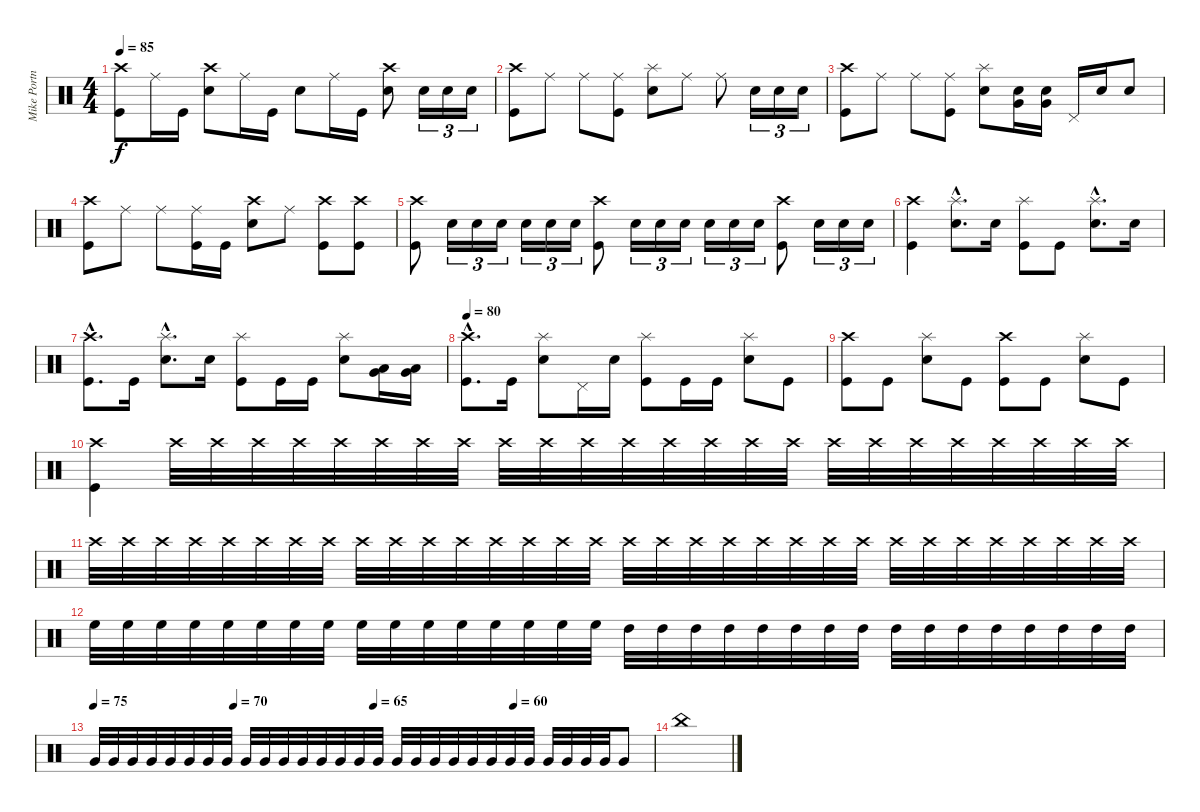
\track ("Mike Portnoy" "Mike Portn") {instrument percussion}
\staff {score}
\articulation defaults
\ts (4 4)
\tempo 85
\clef neutral
\ks c
("Crash high (hit)" "Kick (hit)").8{dy f} "Ride (middle)".16 "Kick (hit)".16 ("Crash high (hit)" "Electric Snare (hit)").8 "Ride (middle)".16 "Kick (hit)".16 "Electric Snare (hit)".8 "Ride (middle)".16 "Kick (hit)".16 ("Crash high (hit)" "Electric Snare (hit)").8 "Electric Snare (hit)".16{tu (3 2)} "Electric Snare (hit)".16{tu (3 2)} "Electric Snare (hit)".16{tu (3 2)} |
("Crash high (hit)" "Kick (hit)").8 "Ride (middle)".8 "Ride (middle)".8 ("Ride (middle)" "Kick (hit)").8 ("Splash (hit)" "Electric Snare (hit)").8 "Ride (middle)".8 "Ride (middle)".8 "Electric Snare (hit)".16{tu (3 2)} "Electric Snare (hit)".16{tu (3 2)} "Electric Snare (hit)".16{tu (3 2)} |
("Crash high (hit)" "Kick (hit)").8 "Ride (middle)".8 "Ride (middle)".8 ("Ride (middle)" "Kick (hit)").8 ("Splash (hit)" "Electric Snare (hit)").8 ("Electric Snare (hit)" "Very Low Tom (hit)").16 ("Electric Snare (hit)" "Very Low Tom (hit)").16 "Pedal Hi-Hat (hit)".16 "Electric Snare (hit)".16 "Electric Snare (hit)".8 |
("Crash high (hit)" "Kick (hit)").8 "Ride (middle)".8 "Ride (middle)".8 ("Ride (middle)" "Kick (hit)").16 "Kick (hit)".16 ("Crash high (hit)" "Electric Snare (hit)").8 "Ride (middle)".8 ("Crash high (hit)" "Kick (hit)").8 ("Crash high (hit)" "Kick (hit)").8 |
("Crash high (hit)" "Kick (hit)").8 "Electric Snare (hit)".16{tu (3 2)} "Electric Snare (hit)".16{tu (3 2)} "Electric Snare (hit)".16{tu (3 2)} "Electric Snare (hit)".16{tu (3 2)} "Electric Snare (hit)".16{tu (3 2)} "Electric Snare (hit)".16{tu (3 2)} ("Crash high (hit)" "Kick (hit)").8 "Electric Snare (hit)".16{tu (3 2)} "Electric Snare (hit)".16{tu (3 2)} "Electric Snare (hit)".16{tu (3 2)} "Electric Snare (hit)".16{tu (3 2)} "Electric Snare (hit)".16{tu (3 2)} "Electric Snare (hit)".16{tu (3 2)} ("Crash high (hit)" "Kick (hit)").8 "Electric Snare (hit)".16{tu (3 2)} "Electric Snare (hit)".16{tu (3 2)} "Electric Snare (hit)".16{tu (3 2)} |
("Crash high (hit)" "Kick (hit)").4 ("Splash (hit)"{hac} "Electric Snare (hit)"{hac}).8{d} "Electric Snare (hit)".16 ("Splash (hit)" "Kick (hit)").8 "Kick (hit)".8 ("Splash (hit)"{hac} "Electric Snare (hit)"{hac}).8{d} "Electric Snare (hit)".16 |
("Crash high (hit)"{hac} "Kick (hit)"{hac}).8{d} "Kick (hit)".16 ("Splash (hit)"{hac} "Electric Snare (hit)"{hac}).8{d} "Electric Snare (hit)".16 ("Splash (hit)" "Kick (hit)").8 "Kick (hit)".16 "Kick (hit)".16 ("Splash (hit)" "Electric Snare (hit)").8 ("Low Tom (hit)" "Very Low Tom (hit)").16 ("Low Tom (hit)" "Very Low Tom (hit)").16 |
\tempo 80
("Crash high (hit)"{hac} "Kick (hit)"{hac}).8{d} "Kick (hit)".16 ("Splash (hit)" "Electric Snare (hit)").8 "Pedal Hi-Hat (hit)".16 "Electric Snare (hit)".16 ("Splash (hit)" "Kick (hit)").8 "Kick (hit)".16 "Kick (hit)".16 ("Splash (hit)" "Electric Snare (hit)").8 "Kick (hit)".8 |
("Crash high (hit)" "Kick (hit)").8 "Kick (hit)".8 ("Splash (hit)" "Electric Snare (hit)").8 "Kick (hit)".8 ("Crash high (hit)" "Kick (hit)").8 "Kick (hit)".8 ("Splash (hit)" "Electric Snare (hit)").8 "Kick (hit)".8 |
("Crash high (hit)" "Kick (hit)").4 "Crash high (hit)".32 "Crash high (hit)".32 "Crash high (hit)".32 "Crash high (hit)".32 "Crash high (hit)".32 "Crash high (hit)".32 "Crash high (hit)".32 "Crash high (hit)".32 "Crash high (hit)".32 "Crash high (hit)".32 "Crash high (hit)".32 "Crash high (hit)".32 "Crash high (hit)".32 "Crash high (hit)".32 "Crash high (hit)".32 "Crash high (hit)".32 "Crash high (hit)".32 "Crash high (hit)".32 "Crash high (hit)".32 "Crash high (hit)".32 "Crash high (hit)".32 "Crash high (hit)".32 "Crash high (hit)".32 "Crash high (hit)".32 |
"Crash high (hit)".32 "Crash high (hit)".32 "Crash high (hit)".32 "Crash high (hit)".32 "Crash high (hit)".32 "Crash high (hit)".32 "Crash high (hit)".32 "Crash high (hit)".32 "Crash high (hit)".32 "Crash high (hit)".32 "Crash high (hit)".32 "Crash high (hit)".32 "Crash high (hit)".32 "Crash high (hit)".32 "Crash high (hit)".32 "Crash high (hit)".32 "Crash high (hit)".32 "Crash high (hit)".32 "Crash high (hit)".32 "Crash high (hit)".32 "Crash high (hit)".32 "Crash high (hit)".32 "Crash high (hit)".32 "Crash high (hit)".32 "Crash high (hit)".32 "Crash high (hit)".32 "Crash high (hit)".32 "Crash high (hit)".32 "Crash high (hit)".32 "Crash high (hit)".32 "Crash high (hit)".32 "Crash high (hit)".32 |
"High Floor Tom (hit)".32 "High Floor Tom (hit)".32 "High Floor Tom (hit)".32 "High Floor Tom (hit)".32 "High Floor Tom (hit)".32 "High Floor Tom (hit)".32 "High Floor Tom (hit)".32 "High Floor Tom (hit)".32 "High Floor Tom (hit)".32 "High Floor Tom (hit)".32 "High Floor Tom (hit)".32 "High Floor Tom (hit)".32 "High Floor Tom (hit)".32 "High Floor Tom (hit)".32 "High Floor Tom (hit)".32 "High Floor Tom (hit)".32 "High Tom (hit)".32 "High Tom (hit)".32 "High Tom (hit)".32 "High Tom (hit)".32 "High Tom (hit)".32 "High Tom (hit)".32 "High Tom (hit)".32 "High Tom (hit)".32 "High Tom (hit)".32 "High Tom (hit)".32 "High Tom (hit)".32 "High Tom (hit)".32 "High Tom (hit)".32 "High Tom (hit)".32 "High Tom (hit)".32 "High Tom (hit)".32 |
\tempo 75
\tempo (70 0.25)
\tempo (65 0.5)
\tempo (60 0.75)
"Very Low Tom (hit)".32 "Very Low Tom (hit)".32 "Very Low Tom (hit)".32 "Very Low Tom (hit)".32 "Very Low Tom (hit)".32 "Very Low Tom (hit)".32 "Very Low Tom (hit)".32 "Very Low Tom (hit)".32 "Very Low Tom (hit)".32 "Very Low Tom (hit)".32 "Very Low Tom (hit)".32 "Very Low Tom (hit)".32 "Very Low Tom (hit)".32 "Very Low Tom (hit)".32 "Very Low Tom (hit)".32 "Very Low Tom (hit)".32 "Very Low Tom (hit)".32 "Very Low Tom (hit)".32 "Very Low Tom (hit)".32 "Very Low Tom (hit)".32 "Very Low Tom (hit)".32 "Very Low Tom (hit)".32 "Very Low Tom (hit)".32 "Very Low Tom (hit)".32 "Very Low Tom (hit)".32 "Very Low Tom (hit)".32 "Very Low Tom (hit)".32 "Very Low Tom (hit)".32 "Very Low Tom (hit)".8 |
"China (hit)".1
